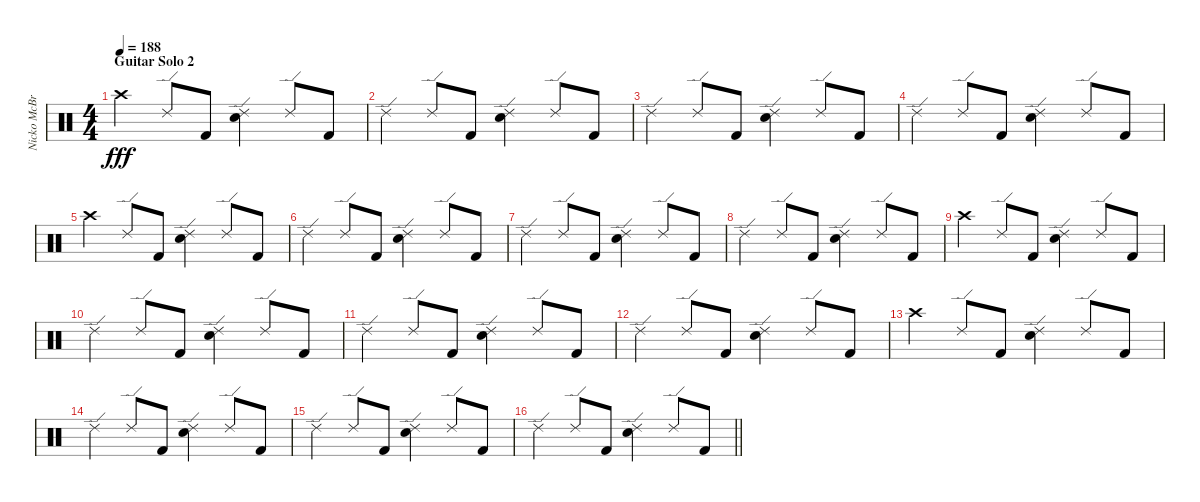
\track ("Nicko McBrain" "Nicko McBr") {instrument percussion}
\staff {score}
\articulation defaults
\ts (4 4)
\section ("" "Guitar Solo 2")
\tempo 188
\clef neutral
\ks c "Crash high (hit)".4{dy fff} "Ride (edge) 2".8 "Kick (hit) 2".8
("Ride (edge) 2" "Electric Snare (hit)").4 "Ride (edge) 2".8 "Kick (hit) 2".8 |
"Ride (edge) 2".4 "Ride (edge) 2".8 "Kick (hit) 2".8 ("Ride (edge) 2" "Electric Snare (hit)").4 "Ride (edge) 2".8 "Kick (hit) 2".8 |
"Ride (edge) 2".4 "Ride (edge) 2".8 "Kick (hit) 2".8 ("Ride (edge) 2" "Electric Snare (hit)").4 "Ride (edge) 2".8 "Kick (hit) 2".8 |
"Ride (edge) 2".4 "Ride (edge) 2".8 "Kick (hit) 2".8 ("Ride (edge) 2" "Electric Snare (hit)").4 "Ride (edge) 2".8 "Kick (hit) 2".8 |
"Crash high (hit)".4 "Ride (edge) 2".8 "Kick (hit) 2".8 ("Ride (edge) 2" "Electric Snare (hit)").4 "Ride (edge) 2".8 "Kick (hit) 2".8 |
"Ride (edge) 2".4 "Ride (edge) 2".8 "Kick (hit) 2".8 ("Ride (edge) 2" "Electric Snare (hit)").4 "Ride (edge) 2".8 "Kick (hit) 2".8 |
"Ride (edge) 2".4 "Ride (edge) 2".8 "Kick (hit) 2".8 ("Ride (edge) 2" "Electric Snare (hit)").4 "Ride (edge) 2".8 "Kick (hit) 2".8 |
"Ride (edge) 2".4 "Ride (edge) 2".8 "Kick (hit) 2".8 ("Ride (edge) 2" "Electric Snare (hit)").4 "Ride (edge) 2".8 "Kick (hit) 2".8 |
"Crash high (hit)".4 "Ride (edge) 2".8 "Kick (hit) 2".8 ("Ride (edge) 2" "Electric Snare (hit)").4 "Ride (edge) 2".8 "Kick (hit) 2".8 |
"Ride (edge) 2".4 "Ride (edge) 2".8 "Kick (hit) 2".8 ("Ride (edge) 2" "Electric Snare (hit)").4 "Ride (edge) 2".8 "Kick (hit) 2".8 |
"Ride (edge) 2".4 "Ride (edge) 2".8 "Kick (hit) 2".8 ("Ride (edge) 2" "Electric Snare (hit)").4 "Ride (edge) 2".8 "Kick (hit) 2".8 |
"Ride (edge) 2".4 "Ride (edge) 2".8 "Kick (hit) 2".8 ("Ride (edge) 2" "Electric Snare (hit)").4 "Ride (edge) 2".8 "Kick (hit) 2".8 |
"Crash high (hit)".4 "Ride (edge) 2".8 "Kick (hit) 2".8 ("Ride (edge) 2" "Electric Snare (hit)").4 "Ride (edge) 2".8 "Kick (hit) 2".8 |
"Ride (edge) 2".4 "Ride (edge) 2".8 "Kick (hit) 2".8 ("Ride (edge) 2" "Electric Snare (hit)").4 "Ride (edge) 2".8 "Kick (hit) 2".8 |
"Ride (edge) 2".4 "Ride (edge) 2".8 "Kick (hit) 2".8 ("Ride (edge) 2" "Electric Snare (hit)").4 "Ride (edge) 2".8 "Kick (hit) 2".8 |
\barLineRight lightlight "Ride (edge) 2".4 "Ride (edge) 2".8 "Kick (hit) 2".8
("Ride (edge) 2" "Electric Snare (hit)").4 "Ride (edge) 2".8 "Kick (hit) 2".8
